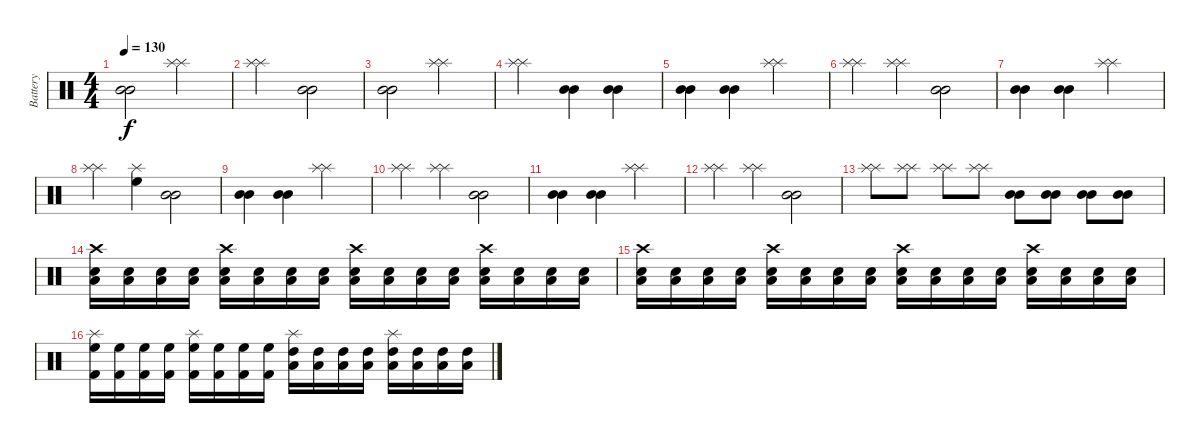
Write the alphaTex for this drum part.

\track ("Battery" "Battery") {instrument percussion}
\staff {score}
\articulation defaults
\ts (4 4)
\tempo 130
\clef neutral
\ks c
("Mid Tom (hit)" "Mid Tom (hit)").2{dy f} ("Splash (hit)" "Splash (hit)").2 |
("Splash (hit)" "Splash (hit)").2 ("Mid Tom (hit)" "Mid Tom (hit)").2 |
("Mid Tom (hit)" "Mid Tom (hit)").2 ("Splash (hit)" "Splash (hit)").2 |
("Splash (hit)" "Splash (hit)").2 ("Mid Tom (hit)" "Mid Tom (hit)").4 ("Mid Tom (hit)" "Mid Tom (hit)").4 |
("Mid Tom (hit)" "Mid Tom (hit)").4 ("Mid Tom (hit)" "Mid Tom (hit)").4 ("Splash (hit)" "Splash (hit)").2 |
("Splash (hit)" "Splash (hit)").4 ("Splash (hit)" "Splash (hit)").4 ("Mid Tom (hit)" "Mid Tom (hit)").2 |
("Mid Tom (hit)" "Mid Tom (hit)").4 ("Mid Tom (hit)" "Mid Tom (hit)").4 ("Splash (hit)" "Splash (hit)").2 |
("Splash (hit)" "Splash (hit)").4 ("High Floor Tom (hit)" "Splash (hit)").4 ("Mid Tom (hit)" "Mid Tom (hit)").2 |
("Mid Tom (hit)" "Mid Tom (hit)").4 ("Mid Tom (hit)" "Mid Tom (hit)").4 ("Splash (hit)" "Splash (hit)").2 |
("Splash (hit)" "Splash (hit)").4 ("Splash (hit)" "Splash (hit)").4 ("Mid Tom (hit)" "Mid Tom (hit)").2 |
("Mid Tom (hit)" "Mid Tom (hit)").4 ("Mid Tom (hit)" "Mid Tom (hit)").4 ("Splash (hit)" "Splash (hit)").2 |
("Splash (hit)" "Splash (hit)").4 ("Splash (hit)" "Splash (hit)").4 ("Mid Tom (hit)" "Mid Tom (hit)").2 |
("Splash (hit)" "Splash (hit)").8 ("Splash (hit)" "Splash (hit)").8 ("Splash (hit)" "Splash (hit)").8 ("Splash (hit)" "Splash (hit)").8 ("Mid Tom (hit)" "Mid Tom (hit)").8 ("Mid Tom (hit)" "Mid Tom (hit)").8 ("Mid Tom (hit)" "Mid Tom (hit)").8 ("Mid Tom (hit)" "Mid Tom (hit)").8 |
("Low Floor Tom (hit)" "Electric Snare (hit)" "Crash high (hit)").16 ("Low Floor Tom (hit)" "Electric Snare (hit)").16 ("Low Floor Tom (hit)" "Electric Snare (hit)").16 ("Low Floor Tom (hit)" "Electric Snare (hit)").16 ("Low Floor Tom (hit)" "Electric Snare (hit)" "Crash high (hit)").16 ("Low Floor Tom (hit)" "Electric Snare (hit)").16 ("Low Floor Tom (hit)" "Electric Snare (hit)").16 ("Low Floor Tom (hit)" "Electric Snare (hit)").16 ("Snare (hit) 2" "Low Tom (hit)" "Crash high (hit)").16 ("Snare (hit) 2" "Low Tom (hit)").16 ("Snare (hit) 2" "Low Tom (hit)").16 ("Snare (hit) 2" "Low Tom (hit)").16 ("Snare (hit) 2" "Low Tom (hit)" "Crash high (hit)").16 ("Snare (hit) 2" "Low Tom (hit)").16 ("Snare (hit) 2" "Low Tom (hit)").16 ("Snare (hit) 2" "Low Tom (hit)").16 |
("Snare (hit) 2" "Low Tom (hit)" "Crash high (hit)").16 ("Snare (hit) 2" "Low Tom (hit)").16 ("Snare (hit) 2" "Low Tom (hit)").16 ("Snare (hit) 2" "Low Tom (hit)").16 ("Snare (hit) 2" "Low Tom (hit)" "Crash high (hit)").16 ("Snare (hit) 2" "Low Tom (hit)").16 ("Snare (hit) 2" "Low Tom (hit)").16 ("Snare (hit) 2" "Low Tom (hit)").16 ("Low Floor Tom (hit)" "Electric Snare (hit)" "Crash high (hit)").16 ("Low Floor Tom (hit)" "Electric Snare (hit)").16 ("Low Floor Tom (hit)" "Electric Snare (hit)").16 ("Low Floor Tom (hit)" "Electric Snare (hit)").16 ("Low Floor Tom (hit)" "Electric Snare (hit)" "Crash high (hit)").16 ("Low Floor Tom (hit)" "Electric Snare (hit)").16 ("Low Floor Tom (hit)" "Electric Snare (hit)").16 ("Low Floor Tom (hit)" "Electric Snare (hit)").16 |
("Kick (hit) 2" "High Floor Tom (hit)" "Splash (hit)").16 ("Kick (hit) 2" "High Floor Tom (hit)").16 ("Kick (hit) 2" "High Floor Tom (hit)").16 ("Kick (hit) 2" "High Floor Tom (hit)").16 ("Kick (hit) 2" "High Floor Tom (hit)" "Splash (hit)").16 ("Kick (hit) 2" "High Floor Tom (hit)").16 ("Kick (hit) 2" "High Floor Tom (hit)").16 ("Kick (hit) 2" "High Floor Tom (hit)").16 ("Low Floor Tom (hit)" "High Tom (hit)" "Splash (hit)").16 ("Low Floor Tom (hit)" "High Tom (hit)").16 ("Low Floor Tom (hit)" "High Tom (hit)").16 ("Low Floor Tom (hit)" "High Tom (hit)").16 ("Low Floor Tom (hit)" "High Tom (hit)" "Splash (hit)").16 ("Low Floor Tom (hit)" "High Tom (hit)").16 ("Low Floor Tom (hit)" "High Tom (hit)").16 ("Low Floor Tom (hit)" "High Tom (hit)").16
